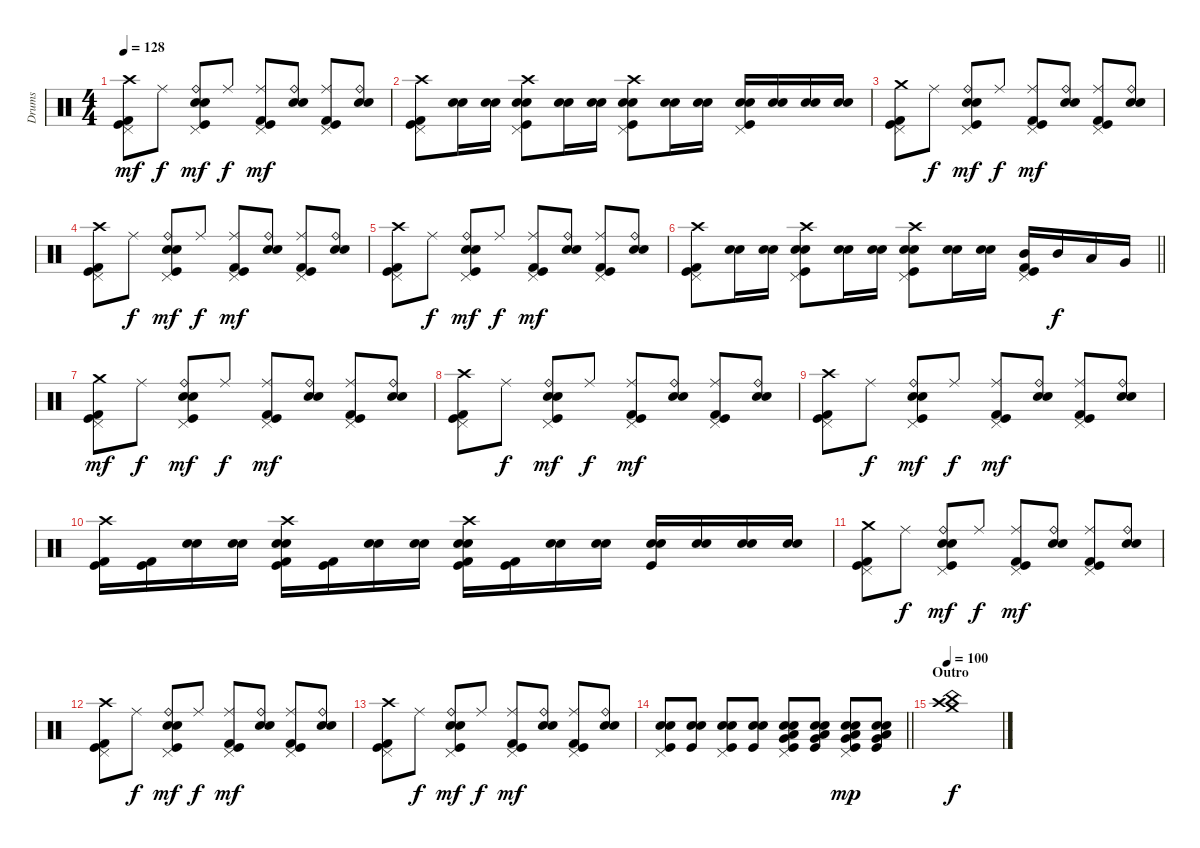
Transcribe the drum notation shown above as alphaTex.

\track ("Drums" "Drums") {instrument percussion}
\staff {score}
\articulation defaults
\ts (4 4)
\tempo 128
\clef neutral
\ks c
("Crash high (hit)" "Pedal Hi-Hat (hit)" "Kick (hit) 2" "Kick (hit)").8{dy mf} "Ride (middle)".8{dy f} ("Ride (bell)" "Pedal Hi-Hat (hit)" "Snare (hit) 2" "Electric Snare (hit)" "Kick (hit)").8{dy mf} "Ride (middle)".8{dy f} ("Ride (middle)" "Pedal Hi-Hat (hit)" "Kick (hit) 2" "Kick (hit)").8{dy mf} ("Ride (bell)" "Snare (hit) 2" "Electric Snare (hit)").8 ("Ride (middle)" "Pedal Hi-Hat (hit)" "Kick (hit) 2" "Kick (hit)").8 ("Ride (bell)" "Snare (hit) 2" "Electric Snare (hit)").8 |
("Crash high (hit)" "Pedal Hi-Hat (hit)" "Kick (hit) 2" "Kick (hit)").8 ("Snare (hit) 2" "Electric Snare (hit)").16 ("Snare (hit) 2" "Electric Snare (hit)").16 ("Crash high (hit)" "Pedal Hi-Hat (hit)" "Snare (hit) 2" "Electric Snare (hit)" "Kick (hit)").8 ("Snare (hit) 2" "Electric Snare (hit)").16 ("Snare (hit) 2" "Electric Snare (hit)").16 ("Crash high (hit)" "Pedal Hi-Hat (hit)" "Snare (hit) 2" "Electric Snare (hit)" "Kick (hit)").8 ("Snare (hit) 2" "Electric Snare (hit)").16 ("Snare (hit) 2" "Electric Snare (hit)").16 ("Pedal Hi-Hat (hit)" "Snare (hit) 2" "Electric Snare (hit)" "Kick (hit)").16 ("Snare (hit) 2" "Electric Snare (hit)").16 ("Snare (hit) 2" "Electric Snare (hit)").16 ("Snare (hit) 2" "Electric Snare (hit)").16 |
("Crash medium (hit)" "Pedal Hi-Hat (hit)" "Kick (hit) 2" "Kick (hit)").8 "Ride (middle)".8{dy f} ("Ride (bell)" "Pedal Hi-Hat (hit)" "Snare (hit) 2" "Electric Snare (hit)" "Kick (hit)").8{dy mf} "Ride (middle)".8{dy f} ("Ride (middle)" "Pedal Hi-Hat (hit)" "Kick (hit) 2" "Kick (hit)").8{dy mf} ("Ride (bell)" "Snare (hit) 2" "Electric Snare (hit)").8 ("Ride (middle)" "Pedal Hi-Hat (hit)" "Kick (hit) 2" "Kick (hit)").8 ("Ride (bell)" "Snare (hit) 2" "Electric Snare (hit)").8 |
("Crash high (hit)" "Pedal Hi-Hat (hit)" "Kick (hit) 2" "Kick (hit)").8 "Ride (middle)".8{dy f} ("Ride (bell)" "Pedal Hi-Hat (hit)" "Snare (hit) 2" "Electric Snare (hit)" "Kick (hit)").8{dy mf} "Ride (middle)".8{dy f} ("Ride (middle)" "Pedal Hi-Hat (hit)" "Kick (hit) 2" "Kick (hit)").8{dy mf} ("Ride (bell)" "Snare (hit) 2" "Electric Snare (hit)").8 ("Ride (middle)" "Pedal Hi-Hat (hit)" "Kick (hit) 2" "Kick (hit)").8 ("Ride (bell)" "Snare (hit) 2" "Electric Snare (hit)").8 |
("Crash high (hit)" "Pedal Hi-Hat (hit)" "Kick (hit) 2" "Kick (hit)").8 "Ride (middle)".8{dy f} ("Ride (bell)" "Pedal Hi-Hat (hit)" "Snare (hit) 2" "Electric Snare (hit)" "Kick (hit)").8{dy mf} "Ride (middle)".8{dy f} ("Ride (middle)" "Pedal Hi-Hat (hit)" "Kick (hit) 2" "Kick (hit)").8{dy mf} ("Ride (bell)" "Snare (hit) 2" "Electric Snare (hit)").8 ("Ride (middle)" "Pedal Hi-Hat (hit)" "Kick (hit) 2" "Kick (hit)").8 ("Ride (bell)" "Snare (hit) 2" "Electric Snare (hit)").8 |
\barLineRight lightlight
("Crash high (hit)" "Pedal Hi-Hat (hit)" "Kick (hit) 2" "Kick (hit)").8 ("Snare (hit) 2" "Electric Snare (hit)").16 ("Snare (hit) 2" "Electric Snare (hit)").16 ("Crash high (hit)" "Pedal Hi-Hat (hit)" "Snare (hit) 2" "Electric Snare (hit)" "Kick (hit)").8 ("Snare (hit) 2" "Electric Snare (hit)").16 ("Snare (hit) 2" "Electric Snare (hit)").16 ("Crash high (hit)" "Pedal Hi-Hat (hit)" "Snare (hit) 2" "Electric Snare (hit)" "Kick (hit)").8 ("Snare (hit) 2" "Electric Snare (hit)").16 ("Snare (hit) 2" "Electric Snare (hit)").16 ("Mid Tom (hit)" "Pedal Hi-Hat (hit)" "Kick (hit) 2" "Kick (hit)").16 "Mid Tom (hit)".16{dy f} "Low Tom (hit)".16 "Very Low Tom (hit)".16 |
("Crash medium (hit)" "Pedal Hi-Hat (hit)" "Kick (hit) 2" "Kick (hit)").8{dy mf} "Ride (middle)".8{dy f} ("Ride (bell)" "Pedal Hi-Hat (hit)" "Snare (hit) 2" "Electric Snare (hit)" "Kick (hit)").8{dy mf} "Ride (middle)".8{dy f} ("Ride (middle)" "Pedal Hi-Hat (hit)" "Kick (hit) 2" "Kick (hit)").8{dy mf} ("Ride (bell)" "Snare (hit) 2" "Electric Snare (hit)").8 ("Ride (middle)" "Pedal Hi-Hat (hit)" "Kick (hit) 2" "Kick (hit)").8 ("Ride (bell)" "Snare (hit) 2" "Electric Snare (hit)").8 |
("Crash high (hit)" "Pedal Hi-Hat (hit)" "Kick (hit) 2" "Kick (hit)").8 "Ride (middle)".8{dy f} ("Ride (bell)" "Pedal Hi-Hat (hit)" "Snare (hit) 2" "Electric Snare (hit)" "Kick (hit)").8{dy mf} "Ride (middle)".8{dy f} ("Ride (middle)" "Pedal Hi-Hat (hit)" "Kick (hit) 2" "Kick (hit)").8{dy mf} ("Ride (bell)" "Snare (hit) 2" "Electric Snare (hit)").8 ("Ride (middle)" "Pedal Hi-Hat (hit)" "Kick (hit) 2" "Kick (hit)").8 ("Ride (bell)" "Snare (hit) 2" "Electric Snare (hit)").8 |
("Crash high (hit)" "Pedal Hi-Hat (hit)" "Kick (hit) 2" "Kick (hit)").8 "Ride (middle)".8{dy f} ("Ride (bell)" "Pedal Hi-Hat (hit)" "Snare (hit) 2" "Electric Snare (hit)" "Kick (hit)").8{dy mf} "Ride (middle)".8{dy f} ("Ride (middle)" "Pedal Hi-Hat (hit)" "Kick (hit) 2" "Kick (hit)").8{dy mf} ("Ride (bell)" "Snare (hit) 2" "Electric Snare (hit)").8 ("Ride (middle)" "Pedal Hi-Hat (hit)" "Kick (hit) 2" "Kick (hit)").8 ("Ride (bell)" "Snare (hit) 2" "Electric Snare (hit)").8 |
("Crash high (hit)" "Kick (hit) 2" "Kick (hit)").16 ("Kick (hit) 2" "Kick (hit)").16 ("Snare (hit) 2" "Electric Snare (hit)").16 ("Snare (hit) 2" "Electric Snare (hit)").16 ("Crash high (hit)" "Kick (hit) 2" "Snare (hit) 2" "Electric Snare (hit)" "Kick (hit)").16 ("Kick (hit) 2" "Kick (hit)").16 ("Snare (hit) 2" "Electric Snare (hit)").16 ("Snare (hit) 2" "Electric Snare (hit)").16 ("Crash high (hit)" "Kick (hit) 2" "Snare (hit) 2" "Electric Snare (hit)" "Kick (hit)").16 ("Kick (hit) 2" "Kick (hit)").16 ("Snare (hit) 2" "Electric Snare (hit)").16 ("Snare (hit) 2" "Electric Snare (hit)").16 ("Snare (hit) 2" "Electric Snare (hit)" "Kick (hit)").16 ("Snare (hit) 2" "Electric Snare (hit)").16 ("Snare (hit) 2" "Electric Snare (hit)").16 ("Snare (hit) 2" "Electric Snare (hit)").16 |
("Crash medium (hit)" "Pedal Hi-Hat (hit)" "Kick (hit) 2" "Kick (hit)").8 "Ride (middle)".8{dy f} ("Ride (bell)" "Pedal Hi-Hat (hit)" "Snare (hit) 2" "Electric Snare (hit)" "Kick (hit)").8{dy mf} "Ride (middle)".8{dy f} ("Ride (middle)" "Pedal Hi-Hat (hit)" "Kick (hit) 2" "Kick (hit)").8{dy mf} ("Ride (bell)" "Snare (hit) 2" "Electric Snare (hit)").8 ("Ride (middle)" "Pedal Hi-Hat (hit)" "Kick (hit) 2" "Kick (hit)").8 ("Ride (bell)" "Snare (hit) 2" "Electric Snare (hit)").8 |
("Crash high (hit)" "Pedal Hi-Hat (hit)" "Kick (hit) 2" "Kick (hit)").8 "Ride (middle)".8{dy f} ("Ride (bell)" "Pedal Hi-Hat (hit)" "Snare (hit) 2" "Electric Snare (hit)" "Kick (hit)").8{dy mf} "Ride (middle)".8{dy f} ("Ride (middle)" "Pedal Hi-Hat (hit)" "Kick (hit) 2" "Kick (hit)").8{dy mf} ("Ride (bell)" "Snare (hit) 2" "Electric Snare (hit)").8 ("Ride (middle)" "Pedal Hi-Hat (hit)" "Kick (hit) 2" "Kick (hit)").8 ("Ride (bell)" "Snare (hit) 2" "Electric Snare (hit)").8 |
("Crash high (hit)" "Pedal Hi-Hat (hit)" "Kick (hit) 2" "Kick (hit)").8 "Ride (middle)".8{dy f} ("Ride (bell)" "Pedal Hi-Hat (hit)" "Snare (hit) 2" "Electric Snare (hit)" "Kick (hit)").8{dy mf} "Ride (middle)".8{dy f} ("Ride (middle)" "Pedal Hi-Hat (hit)" "Kick (hit) 2" "Kick (hit)").8{dy mf} ("Ride (bell)" "Snare (hit) 2" "Electric Snare (hit)").8 ("Ride (middle)" "Pedal Hi-Hat (hit)" "Kick (hit) 2" "Kick (hit)").8 ("Ride (bell)" "Snare (hit) 2" "Electric Snare (hit)").8 |
\barLineRight lightlight
("Pedal Hi-Hat (hit)" "Snare (hit) 2" "Electric Snare (hit)" "Kick (hit)").8 ("Snare (hit) 2" "Electric Snare (hit)" "Kick (hit)").8 ("Pedal Hi-Hat (hit)" "Snare (hit) 2" "Electric Snare (hit)" "Kick (hit)").8 ("Snare (hit) 2" "Electric Snare (hit)" "Kick (hit)").8 ("Very Low Tom (hit)" "Low Floor Tom (hit)" "Pedal Hi-Hat (hit)" "Snare (hit) 2" "Electric Snare (hit)" "Kick (hit)").8 ("Very Low Tom (hit)" "Low Floor Tom (hit)" "Snare (hit) 2" "Electric Snare (hit)" "Kick (hit)").8 ("Very Low Tom (hit)" "Low Floor Tom (hit)" "Pedal Hi-Hat (hit)" "Snare (hit) 2" "Electric Snare (hit)" "Kick (hit)").8{dy mp} ("Very Low Tom (hit)" "Low Floor Tom (hit)" "Snare (hit) 2" "Electric Snare (hit)" "Kick (hit)").8 |
\section ("" "Outro")
\tempo 100
("Crash medium (hit)" "Crash high (hit)" "China (hit)").1{dy f}
